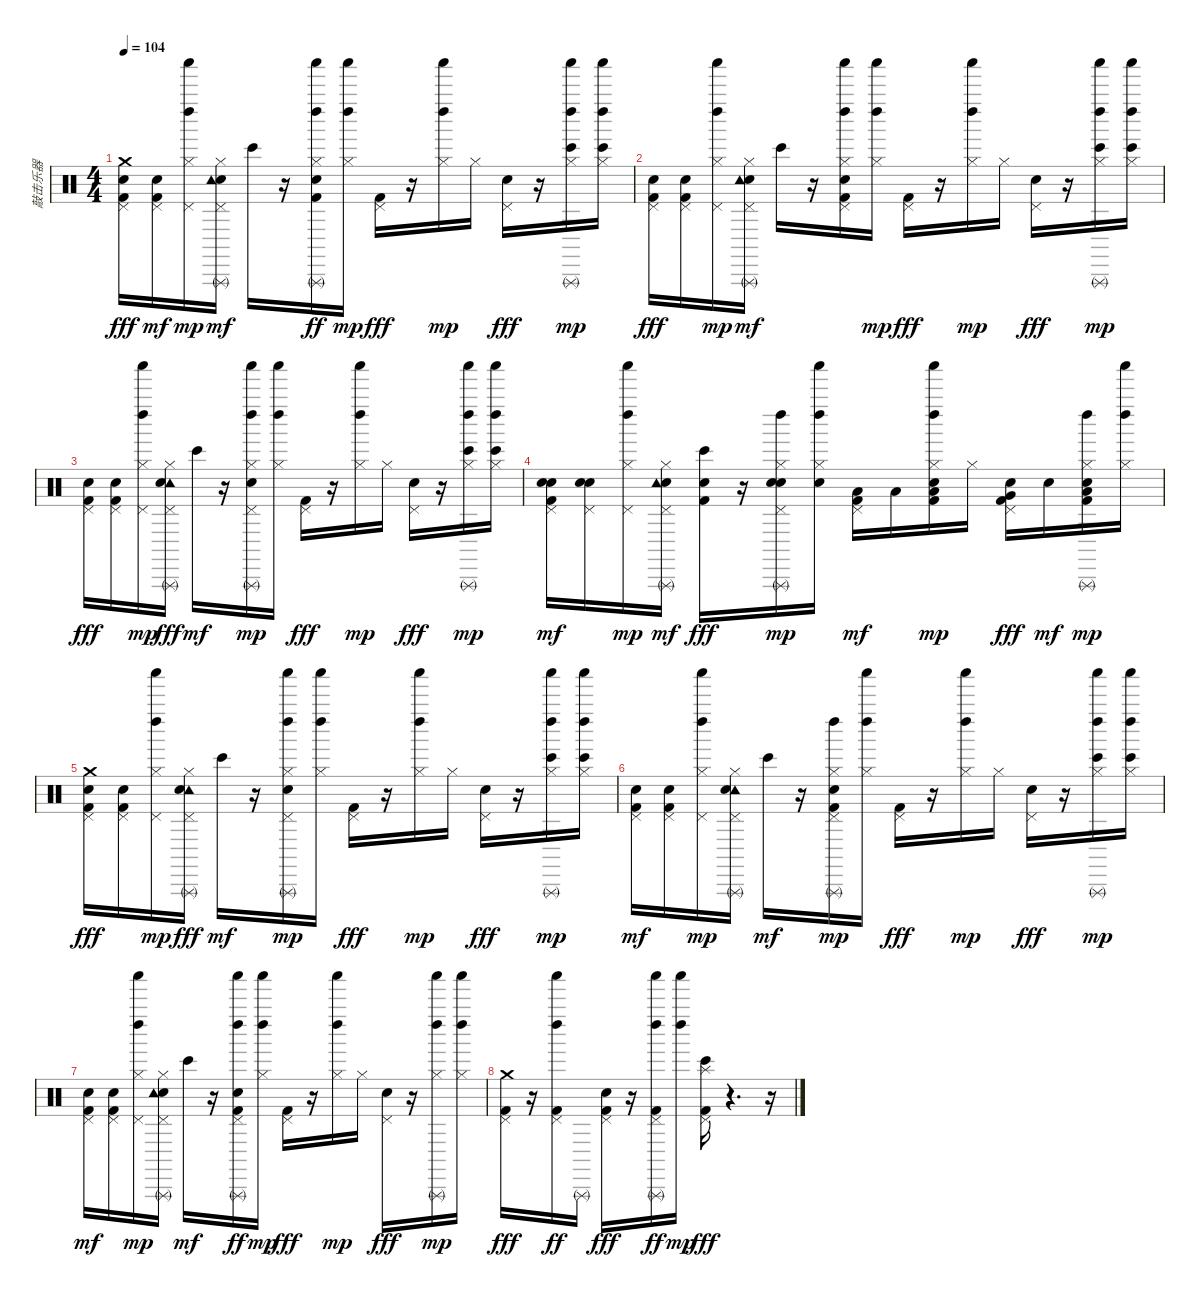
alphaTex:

\track ("敲击乐器" "敲击乐器") {instrument percussion}
\staff {score}
\articulation defaults
\ts (4 4)
\tempo 104
\clef neutral
\ks c
("Kick (hit) 2" "Hand Clap (hit)" "Pedal Hi-Hat (hit)" "Crash medium (hit)").16{dy fff} ("Kick (hit) 2" "Hand Clap (hit)" "Pedal Hi-Hat (hit)").16{dy mf} ("Hi-Hat (closed)" "Left Maraca (hit)" "Shaker (hit)" "Pedal Hi-Hat (hit)").16{dy mp} ("Snare (hit) 2" "Hi-Hat (closed)" "Triangle (rnute)" "Tambourine (hit)" "Pedal Hi-Hat (hit)").16{dy mf} "Bongo High (hit)".16 r.16 ("Kick (hit) 2" "Hi-Hat (closed)" "Hand Clap (hit)" "Shaker (hit)" "Left Maraca (hit)" "Triangle (rnute)").16{dy ff} ("Hi-Hat (closed)" "Shaker (hit)" "Left Maraca (hit)").16{dy mp} ("Kick (hit) 2" "Pedal Hi-Hat (hit)").16{dy fff} r.16 ("Hi-Hat (closed)" "Shaker (hit)" "Left Maraca (hit)").16{dy mp} "Hi-Hat (closed)".16 ("Snare (hit) 2" "Pedal Hi-Hat (hit)").16{dy fff} r.16 ("Bongo High (hit)" "Hi-Hat (closed)" "Shaker (hit)" "Left Maraca (hit)" "Triangle (rnute)").16{dy mp} ("Bongo High (hit)" "Hi-Hat (closed)" "Shaker (hit)" "Left Maraca (hit)").16 |
("Hand Clap (hit)" "Kick (hit) 2" "Pedal Hi-Hat (hit)").16{dy fff} ("Hand Clap (hit)" "Kick (hit) 2" "Pedal Hi-Hat (hit)").16 ("Left Maraca (hit)" "Shaker (hit)" "Hi-Hat (closed)" "Pedal Hi-Hat (hit)").16{dy mp} ("Hi-Hat (closed)" "Snare (hit) 2" "Tambourine (hit)" "Pedal Hi-Hat (hit)" "Triangle (rnute)").16{dy mf} "Bongo High (hit)".16 r.16 ("Shaker (hit)" "Left Maraca (hit)" "Hi-Hat (closed)" "Kick (hit) 2" "Pedal Hi-Hat (hit)" "Hand Clap (hit)").16 ("Shaker (hit)" "Left Maraca (hit)" "Hi-Hat (closed)").16{dy mp} ("Kick (hit) 2" "Pedal Hi-Hat (hit)").16{dy fff} r.16 ("Shaker (hit)" "Left Maraca (hit)" "Hi-Hat (closed)").16{dy mp} "Hi-Hat (closed)".16 ("Snare (hit) 2" "Pedal Hi-Hat (hit)").16{dy fff} r.16 ("Bongo High (hit)" "Shaker (hit)" "Left Maraca (hit)" "Hi-Hat (closed)" "Triangle (rnute)").16{dy mp} ("Bongo High (hit)" "Shaker (hit)" "Left Maraca (hit)" "Hi-Hat (closed)").16 |
("Pedal Hi-Hat (hit)" "Hand Clap (hit)" "Kick (hit) 2").16{dy fff} ("Pedal Hi-Hat (hit)" "Hand Clap (hit)" "Kick (hit) 2").16 ("Hi-Hat (closed)" "Pedal Hi-Hat (hit)" "Shaker (hit)" "Left Maraca (hit)").16{dy mp} ("Hi-Hat (closed)" "Pedal Hi-Hat (hit)" "Tambourine (hit)" "Triangle (rnute)" "Snare (hit) 2").16{dy fff} "Bongo High (hit)".16{dy mf} r.16 ("Hi-Hat (closed)" "Pedal Hi-Hat (hit)" "Triangle (rnute)" "Left Maraca (hit)" "Shaker (hit)" "Hand Clap (hit)").16{dy mp} ("Hi-Hat (closed)" "Left Maraca (hit)" "Shaker (hit)").16 ("Pedal Hi-Hat (hit)" "Kick (hit) 2").16{dy fff} r.16 ("Hi-Hat (closed)" "Left Maraca (hit)" "Shaker (hit)").16{dy mp} "Hi-Hat (closed)".16 ("Pedal Hi-Hat (hit)" "Snare (hit) 2").16{dy fff} r.16 ("Bongo High (hit)" "Hi-Hat (closed)" "Triangle (rnute)" "Left Maraca (hit)" "Shaker (hit)").16{dy mp} ("Bongo High (hit)" "Hi-Hat (closed)" "Left Maraca (hit)" "Shaker (hit)").16 |
("Hand Clap (hit)" "Pedal Hi-Hat (hit)" "Kick (hit) 2" "Hand Clap (hit)").16{dy mf} ("Hand Clap (hit)" "Pedal Hi-Hat (hit)" "Hand Clap (hit)").16 ("Hi-Hat (closed)" "Pedal Hi-Hat (hit)" "Shaker (hit)" "Left Maraca (hit)").16{dy mp} ("Hand Clap (hit)" "Hi-Hat (closed)" "Triangle (rnute)" "Pedal Hi-Hat (hit)" "Tambourine (hit)").16{dy mf} ("Snare (hit) 2" "Bongo High (hit)" "Kick (hit) 2").16{dy fff} r.16 ("Hand Clap (hit)" "Hi-Hat (closed)" "Triangle (rnute)" "Hand Clap (hit)" "Pedal Hi-Hat (hit)" "Left Maraca (hit)").16{dy mp} ("Hand Clap (hit)" "Hi-Hat (closed)" "Left Maraca (hit)" "Shaker (hit)").16 ("Kick (hit) 2" "Pedal Hi-Hat (hit)" "Low Tom (hit)").16{dy mf} "Low Tom (hit)".16 ("Hand Clap (hit)" "Low Tom (hit)" "Kick (hit) 2" "Hi-Hat (closed)" "Left Maraca (hit)" "Shaker (hit)").16{dy mp} "Hi-Hat (closed)".16 ("Very Low Tom (hit)" "Snare (hit) 2" "Pedal Hi-Hat (hit)" "Kick (hit) 2").16{dy fff} "Hand Clap (hit)".16{dy mf} ("Hand Clap (hit)" "Low Floor Tom (hit)" "Kick (hit) 2" "Hi-Hat (closed)" "Triangle (rnute)" "Left Maraca (hit)").16{dy mp} ("Hi-Hat (closed)" "Left Maraca (hit)" "Shaker (hit)").16 |
("Crash medium (hit)" "Pedal Hi-Hat (hit)" "Hand Clap (hit)" "Kick (hit) 2").16{dy fff} ("Pedal Hi-Hat (hit)" "Hand Clap (hit)" "Kick (hit) 2").16 ("Pedal Hi-Hat (hit)" "Shaker (hit)" "Left Maraca (hit)" "Hi-Hat (closed)").16{dy mp} ("Pedal Hi-Hat (hit)" "Tambourine (hit)" "Triangle (rnute)" "Hi-Hat (closed)" "Snare (hit) 2").16{dy fff} "Bongo High (hit)".16{dy mf} r.16 ("Pedal Hi-Hat (hit)" "Triangle (rnute)" "Left Maraca (hit)" "Shaker (hit)" "Hand Clap (hit)" "Hi-Hat (closed)").16{dy mp} ("Left Maraca (hit)" "Shaker (hit)" "Hi-Hat (closed)").16 ("Pedal Hi-Hat (hit)" "Kick (hit) 2").16{dy fff} r.16 ("Left Maraca (hit)" "Shaker (hit)" "Hi-Hat (closed)").16{dy mp} "Hi-Hat (closed)".16 ("Pedal Hi-Hat (hit)" "Snare (hit) 2").16{dy fff} r.16 ("Triangle (rnute)" "Left Maraca (hit)" "Shaker (hit)" "Hi-Hat (closed)" "Bongo High (hit)").16{dy mp} ("Left Maraca (hit)" "Shaker (hit)" "Hi-Hat (closed)" "Bongo High (hit)").16 |
("Pedal Hi-Hat (hit)" "Kick (hit) 2" "Hand Clap (hit)").16{dy mf} ("Pedal Hi-Hat (hit)" "Kick (hit) 2" "Hand Clap (hit)").16 ("Pedal Hi-Hat (hit)" "Hi-Hat (closed)" "Shaker (hit)" "Left Maraca (hit)").16{dy mp} ("Triangle (rnute)" "Pedal Hi-Hat (hit)" "Tambourine (hit)" "Snare (hit) 2" "Hi-Hat (closed)").16 "Bongo High (hit)".16{dy mf} r.16 ("Triangle (rnute)" "Hand Clap (hit)" "Pedal Hi-Hat (hit)" "Kick (hit) 2" "Hi-Hat (closed)" "Left Maraca (hit)").16{dy mp} ("Hi-Hat (closed)" "Left Maraca (hit)" "Shaker (hit)").16 ("Pedal Hi-Hat (hit)" "Kick (hit) 2").16{dy fff} r.16 ("Hi-Hat (closed)" "Left Maraca (hit)" "Shaker (hit)").16{dy mp} "Hi-Hat (closed)".16 ("Pedal Hi-Hat (hit)" "Snare (hit) 2").16{dy fff} r.16 ("Triangle (rnute)" "Hi-Hat (closed)" "Left Maraca (hit)" "Shaker (hit)" "Bongo High (hit)").16{dy mp} ("Hi-Hat (closed)" "Left Maraca (hit)" "Shaker (hit)" "Bongo High (hit)").16 |
("Kick (hit) 2" "Hand Clap (hit)" "Pedal Hi-Hat (hit)").16{dy mf} ("Kick (hit) 2" "Hand Clap (hit)" "Pedal Hi-Hat (hit)").16 ("Left Maraca (hit)" "Shaker (hit)" "Pedal Hi-Hat (hit)" "Hi-Hat (closed)").16{dy mp} ("Snare (hit) 2" "Triangle (rnute)" "Tambourine (hit)" "Pedal Hi-Hat (hit)" "Hi-Hat (closed)").16 "Bongo High (hit)".16{dy mf} r.16 ("Kick (hit) 2" "Hand Clap (hit)" "Shaker (hit)" "Left Maraca (hit)" "Triangle (rnute)" "Pedal Hi-Hat (hit)").16{dy ff} ("Shaker (hit)" "Left Maraca (hit)" "Hi-Hat (closed)").16{dy mp} ("Kick (hit) 2" "Pedal Hi-Hat (hit)").16{dy fff} r.16 ("Shaker (hit)" "Left Maraca (hit)" "Hi-Hat (closed)").16{dy mp} "Hi-Hat (closed)".16 ("Snare (hit) 2" "Pedal Hi-Hat (hit)").16{dy fff} r.16 ("Shaker (hit)" "Left Maraca (hit)" "Triangle (rnute)" "Hi-Hat (closed)").16{dy mp} ("Shaker (hit)" "Left Maraca (hit)" "Hi-Hat (closed)").16 |
("Pedal Hi-Hat (hit)" "Kick (hit) 2" "Crash medium (hit)").16{dy fff} r.16 ("Left Maraca (hit)" "Shaker (hit)" "Kick (hit) 2" "Pedal Hi-Hat (hit)").16{dy ff} "Triangle (rnute)".16 ("Pedal Hi-Hat (hit)" "Kick (hit) 2" "Snare (hit) 2").16{dy fff} r.16 ("Shaker (hit)" "Left Maraca (hit)" "Triangle (rnute)" "Pedal Hi-Hat (hit)" "Kick (hit) 2").16{dy ff} ("Shaker (hit)" "Left Maraca (hit)").16{dy mp} ("Pedal Hi-Hat (hit)" "Kick (hit) 2" "Splash (hit)" "Bongo High (hit)").16{dy fff} r.4{d} r.16
